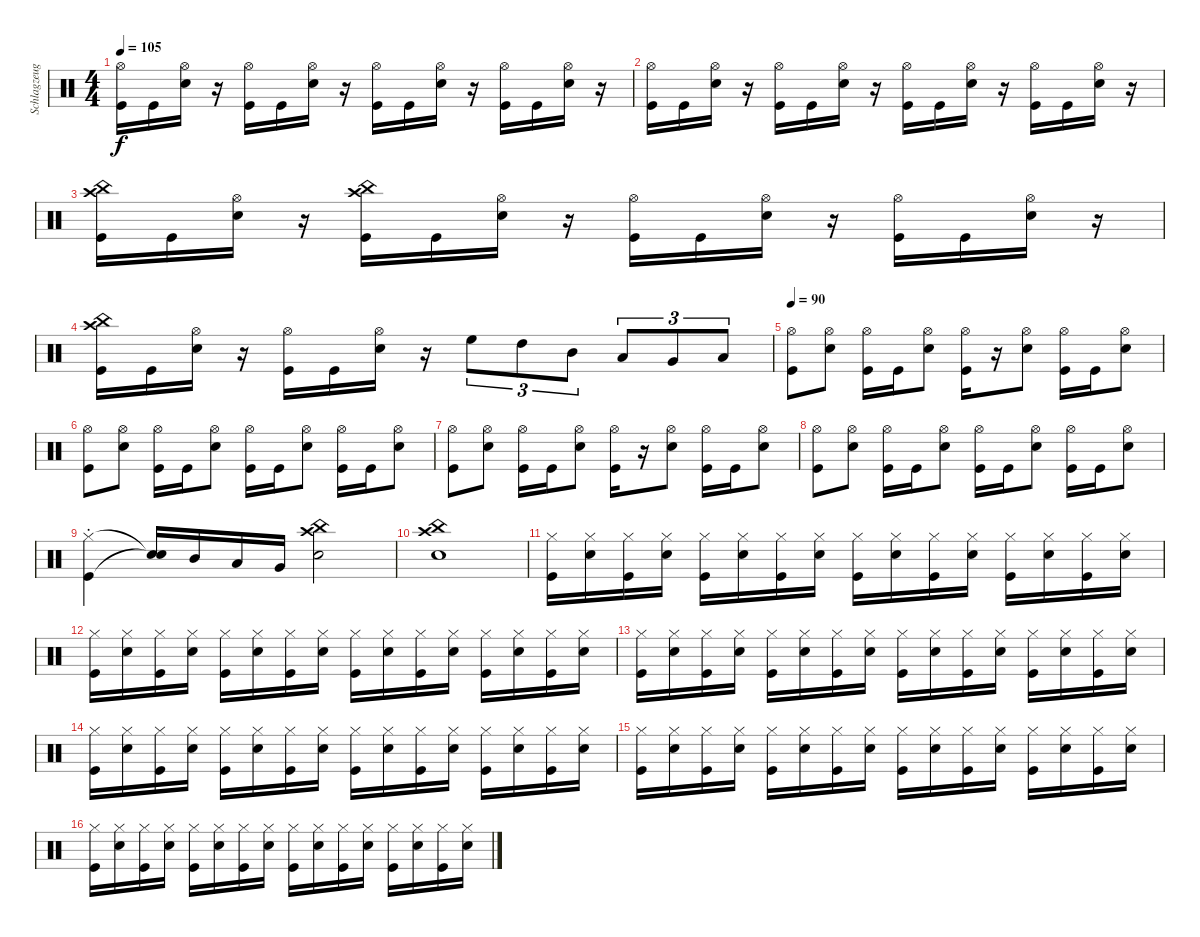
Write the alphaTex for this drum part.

\track ("Schlagzeug" "Schlagzeug") {instrument percussion}
\staff {score}
\articulation defaults
\ts (4 4)
\tempo 105
\clef neutral
\ks c
("Hi-Hat (open)" "Kick (hit)").16{dy f} "Kick (hit)".16 ("Hi-Hat (open)" "Snare (hit) 2").16 r.16 ("Hi-Hat (open)" "Kick (hit)").16 "Kick (hit)".16 ("Hi-Hat (open)" "Snare (hit) 2").16 r.16 ("Hi-Hat (open)" "Kick (hit)").16 "Kick (hit)".16 ("Hi-Hat (open)" "Snare (hit) 2").16 r.16 ("Hi-Hat (open)" "Kick (hit)").16 "Kick (hit)".16 ("Hi-Hat (open)" "Snare (hit) 2").16 r.16 |
("Hi-Hat (open)" "Kick (hit)").16 "Kick (hit)".16 ("Hi-Hat (open)" "Snare (hit) 2").16 r.16 ("Hi-Hat (open)" "Kick (hit)").16 "Kick (hit)".16 ("Hi-Hat (open)" "Snare (hit) 2").16 r.16 ("Hi-Hat (open)" "Kick (hit)").16 "Kick (hit)".16 ("Hi-Hat (open)" "Snare (hit) 2").16 r.16 ("Hi-Hat (open)" "Kick (hit)").16 "Kick (hit)".16 ("Hi-Hat (open)" "Snare (hit) 2").16 r.16 |
("Crash high (hit)" "China (hit)" "Kick (hit)").16 "Kick (hit)".16 ("Hi-Hat (open)" "Snare (hit) 2").16 r.16 ("Crash high (hit)" "China (hit)" "Kick (hit)").16 "Kick (hit)".16 ("Hi-Hat (open)" "Snare (hit) 2").16 r.16 ("Hi-Hat (open)" "Kick (hit)").16 "Kick (hit)".16 ("Hi-Hat (open)" "Snare (hit) 2").16 r.16 ("Hi-Hat (open)" "Kick (hit)").16 "Kick (hit)".16 ("Hi-Hat (open)" "Snare (hit) 2").16 r.16 |
("Crash high (hit)" "China (hit)" "Kick (hit)").16 "Kick (hit)".16 ("Hi-Hat (open)" "Snare (hit) 2").16 r.16 ("Hi-Hat (open)" "Kick (hit)").16 "Kick (hit)".16 ("Hi-Hat (open)" "Snare (hit) 2").16 r.16 "High Floor Tom (hit)".8{tu (3 2)} "High Tom (hit)".8{tu (3 2)} "Mid Tom (hit)".8{tu (3 2)} "Low Tom (hit)".8{tu (3 2)} "Very Low Tom (hit)".8{tu (3 2)} "Low Floor Tom (hit)".8{tu (3 2)} |
\tempo 90
("Hi-Hat (open)" "Kick (hit)").8 ("Hi-Hat (open)" "Snare (hit) 2").8 ("Hi-Hat (open)" "Kick (hit)").16 "Kick (hit)".16 ("Hi-Hat (open)" "Snare (hit) 2").8 ("Hi-Hat (open)" "Kick (hit)").16 r.16 ("Hi-Hat (open)" "Snare (hit) 2").8 ("Hi-Hat (open)" "Kick (hit)").16 "Kick (hit)".16 ("Hi-Hat (open)" "Snare (hit) 2").8 |
("Hi-Hat (open)" "Kick (hit)").8 ("Hi-Hat (open)" "Snare (hit) 2").8 ("Hi-Hat (open)" "Kick (hit)").16 "Kick (hit)".16 ("Hi-Hat (open)" "Snare (hit) 2").8 ("Hi-Hat (open)" "Kick (hit)").16 "Kick (hit)".16 ("Hi-Hat (open)" "Snare (hit) 2").8 ("Hi-Hat (open)" "Kick (hit)").16 "Kick (hit)".16 ("Hi-Hat (open)" "Snare (hit) 2").8 |
("Hi-Hat (open)" "Kick (hit)").8 ("Hi-Hat (open)" "Snare (hit) 2").8 ("Hi-Hat (open)" "Kick (hit)").16 "Kick (hit)".16 ("Hi-Hat (open)" "Snare (hit) 2").8 ("Hi-Hat (open)" "Kick (hit)").16 r.16 ("Hi-Hat (open)" "Snare (hit) 2").8 ("Hi-Hat (open)" "Kick (hit)").16 "Kick (hit)".16 ("Hi-Hat (open)" "Snare (hit) 2").8 |
("Hi-Hat (open)" "Kick (hit)").8 ("Hi-Hat (open)" "Snare (hit) 2").8 ("Hi-Hat (open)" "Kick (hit)").16 "Kick (hit)".16 ("Hi-Hat (open)" "Snare (hit) 2").8 ("Hi-Hat (open)" "Kick (hit)").16 "Kick (hit)".16 ("Hi-Hat (open)" "Snare (hit) 2").8 ("Hi-Hat (open)" "Kick (hit)").16 "Kick (hit)".16 ("Hi-Hat (open)" "Snare (hit) 2").8 |
("Hi-Hat (closed)"{st} "Kick (hit)").4 ("Snare (hit)"{t} "Snare (hit)"{t}).16 "Mid Tom (hit)".16 "Low Tom (hit)".16 "Very Low Tom (hit)".16 ("China (hit)" "Crash high (hit)" "Snare (hit) 2").2 |
("China (hit)" "Crash high (hit)" "Snare (hit) 2").1 |
("Hi-Hat (closed)" "Kick (hit)").16 ("Hi-Hat (closed)" "Snare (hit) 2").16 ("Hi-Hat (closed)" "Kick (hit)").16 ("Hi-Hat (closed)" "Snare (hit) 2").16 ("Hi-Hat (closed)" "Kick (hit)").16 ("Hi-Hat (closed)" "Snare (hit) 2").16 ("Hi-Hat (closed)" "Kick (hit)").16 ("Hi-Hat (closed)" "Snare (hit) 2").16 ("Hi-Hat (closed)" "Kick (hit)").16 ("Hi-Hat (closed)" "Snare (hit) 2").16 ("Hi-Hat (closed)" "Kick (hit)").16 ("Hi-Hat (closed)" "Snare (hit) 2").16 ("Hi-Hat (closed)" "Kick (hit)").16 ("Hi-Hat (closed)" "Snare (hit) 2").16 ("Hi-Hat (closed)" "Kick (hit)").16 ("Hi-Hat (closed)" "Snare (hit) 2").16 |
("Hi-Hat (closed)" "Kick (hit)").16 ("Hi-Hat (closed)" "Snare (hit) 2").16 ("Hi-Hat (closed)" "Kick (hit)").16 ("Hi-Hat (closed)" "Snare (hit) 2").16 ("Hi-Hat (closed)" "Kick (hit)").16 ("Hi-Hat (closed)" "Snare (hit) 2").16 ("Hi-Hat (closed)" "Kick (hit)").16 ("Hi-Hat (closed)" "Snare (hit) 2").16 ("Hi-Hat (closed)" "Kick (hit)").16 ("Hi-Hat (closed)" "Snare (hit) 2").16 ("Hi-Hat (closed)" "Kick (hit)").16 ("Hi-Hat (closed)" "Snare (hit) 2").16 ("Hi-Hat (closed)" "Kick (hit)").16 ("Hi-Hat (closed)" "Snare (hit) 2").16 ("Hi-Hat (closed)" "Kick (hit)").16 ("Hi-Hat (closed)" "Snare (hit) 2").16 |
("Hi-Hat (closed)" "Kick (hit)").16 ("Hi-Hat (closed)" "Snare (hit) 2").16 ("Hi-Hat (closed)" "Kick (hit)").16 ("Hi-Hat (closed)" "Snare (hit) 2").16 ("Hi-Hat (closed)" "Kick (hit)").16 ("Hi-Hat (closed)" "Snare (hit) 2").16 ("Hi-Hat (closed)" "Kick (hit)").16 ("Hi-Hat (closed)" "Snare (hit) 2").16 ("Hi-Hat (closed)" "Kick (hit)").16 ("Hi-Hat (closed)" "Snare (hit) 2").16 ("Hi-Hat (closed)" "Kick (hit)").16 ("Hi-Hat (closed)" "Snare (hit) 2").16 ("Hi-Hat (closed)" "Kick (hit)").16 ("Hi-Hat (closed)" "Snare (hit) 2").16 ("Hi-Hat (closed)" "Kick (hit)").16 ("Hi-Hat (closed)" "Snare (hit) 2").16 |
("Hi-Hat (closed)" "Kick (hit)").16 ("Hi-Hat (closed)" "Snare (hit) 2").16 ("Hi-Hat (closed)" "Kick (hit)").16 ("Hi-Hat (closed)" "Snare (hit) 2").16 ("Hi-Hat (closed)" "Kick (hit)").16 ("Hi-Hat (closed)" "Snare (hit) 2").16 ("Hi-Hat (closed)" "Kick (hit)").16 ("Hi-Hat (closed)" "Snare (hit) 2").16 ("Hi-Hat (closed)" "Kick (hit)").16 ("Hi-Hat (closed)" "Snare (hit) 2").16 ("Hi-Hat (closed)" "Kick (hit)").16 ("Hi-Hat (closed)" "Snare (hit) 2").16 ("Hi-Hat (closed)" "Kick (hit)").16 ("Hi-Hat (closed)" "Snare (hit) 2").16 ("Hi-Hat (closed)" "Kick (hit)").16 ("Hi-Hat (closed)" "Snare (hit) 2").16 |
("Hi-Hat (closed)" "Kick (hit)").16 ("Hi-Hat (closed)" "Snare (hit) 2").16 ("Hi-Hat (closed)" "Kick (hit)").16 ("Hi-Hat (closed)" "Snare (hit) 2").16 ("Hi-Hat (closed)" "Kick (hit)").16 ("Hi-Hat (closed)" "Snare (hit) 2").16 ("Hi-Hat (closed)" "Kick (hit)").16 ("Hi-Hat (closed)" "Snare (hit) 2").16 ("Hi-Hat (closed)" "Kick (hit)").16 ("Hi-Hat (closed)" "Snare (hit) 2").16 ("Hi-Hat (closed)" "Kick (hit)").16 ("Hi-Hat (closed)" "Snare (hit) 2").16 ("Hi-Hat (closed)" "Kick (hit)").16 ("Hi-Hat (closed)" "Snare (hit) 2").16 ("Hi-Hat (closed)" "Kick (hit)").16 ("Hi-Hat (closed)" "Snare (hit) 2").16 |
("Hi-Hat (closed)" "Kick (hit)").16 ("Hi-Hat (closed)" "Snare (hit) 2").16 ("Hi-Hat (closed)" "Kick (hit)").16 ("Hi-Hat (closed)" "Snare (hit) 2").16 ("Hi-Hat (closed)" "Kick (hit)").16 ("Hi-Hat (closed)" "Snare (hit) 2").16 ("Hi-Hat (closed)" "Kick (hit)").16 ("Hi-Hat (closed)" "Snare (hit) 2").16 ("Hi-Hat (closed)" "Kick (hit)").16 ("Hi-Hat (closed)" "Snare (hit) 2").16 ("Hi-Hat (closed)" "Kick (hit)").16 ("Hi-Hat (closed)" "Snare (hit) 2").16 ("Hi-Hat (closed)" "Kick (hit)").16 ("Hi-Hat (closed)" "Snare (hit) 2").16 ("Hi-Hat (closed)" "Kick (hit)").16 ("Hi-Hat (closed)" "Snare (hit) 2").16
